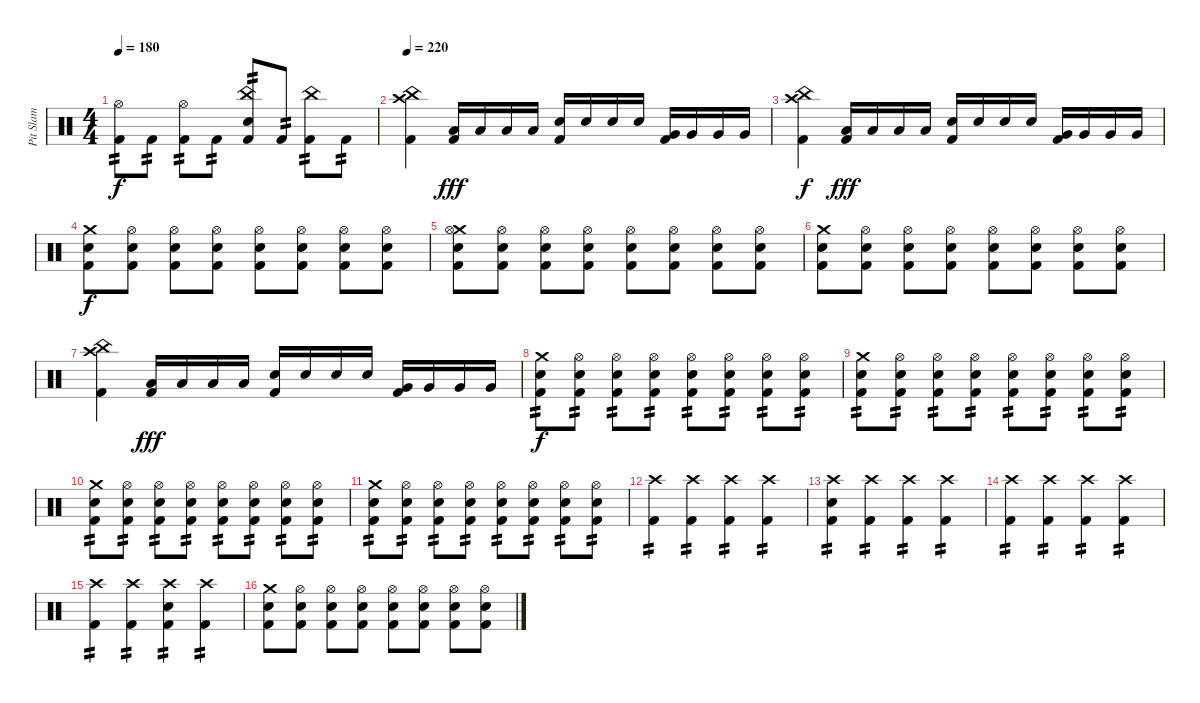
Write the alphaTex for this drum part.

\track ("Pit Slam" "Pit Slam") {instrument percussion}
\staff {score}
\articulation defaults
\ts (4 4)
\tempo 180
\clef neutral
\ks c
("Hi-Hat (open)" "Kick (hit) 2").8{tp 2 dy f} "Kick (hit) 2".8{tp 2} ("Hi-Hat (open)" "Kick (hit) 2").8{tp 2} "Kick (hit) 2".8{tp 2} ("China (hit)" "Electric Snare (hit)" "Kick (hit) 2").8{tp 2} "Kick (hit) 2".8{tp 2} ("China (hit)" "Kick (hit) 2").8{tp 2} "Kick (hit) 2".8{tp 2} |
\tempo 220
("China (hit)" "Crash high (hit)" "Kick (hit) 2").4 ("Low Tom (hit)" "Kick (hit) 2").16{dy fff} "Low Tom (hit)".16 "Low Tom (hit)".16 "Low Tom (hit)".16 ("Electric Snare (hit)" "Kick (hit) 2").16 "Electric Snare (hit)".16 "Electric Snare (hit)".16 "Electric Snare (hit)".16 ("Very Low Tom (hit)" "Kick (hit) 2").16 "Very Low Tom (hit)".16 "Very Low Tom (hit)".16 "Very Low Tom (hit)".16 |
("China (hit)" "Crash high (hit)" "Kick (hit) 2").4{dy f} ("Low Tom (hit)" "Kick (hit) 2").16{dy fff} "Low Tom (hit)".16 "Low Tom (hit)".16 "Low Tom (hit)".16 ("Electric Snare (hit)" "Kick (hit) 2").16 "Electric Snare (hit)".16 "Electric Snare (hit)".16 "Electric Snare (hit)".16 ("Very Low Tom (hit)" "Kick (hit) 2").16 "Very Low Tom (hit)".16 "Very Low Tom (hit)".16 "Very Low Tom (hit)".16 |
("Crash medium (hit)" "Electric Snare (hit)" "Kick (hit) 2").8{dy f} ("Hi-Hat (open)" "Electric Snare (hit)" "Kick (hit) 2").8 ("Hi-Hat (open)" "Electric Snare (hit)" "Kick (hit) 2").8 ("Hi-Hat (open)" "Electric Snare (hit)" "Kick (hit) 2").8 ("Hi-Hat (open)" "Electric Snare (hit)" "Kick (hit) 2").8 ("Hi-Hat (open)" "Electric Snare (hit)" "Kick (hit) 2").8 ("Hi-Hat (open)" "Electric Snare (hit)" "Kick (hit) 2").8 ("Hi-Hat (open)" "Electric Snare (hit)" "Kick (hit) 2").8 |
("Crash medium (hit)" "Hi-Hat (open)" "Electric Snare (hit)" "Kick (hit) 2").8 ("Hi-Hat (open)" "Electric Snare (hit)" "Kick (hit) 2").8 ("Hi-Hat (open)" "Electric Snare (hit)" "Kick (hit) 2").8 ("Hi-Hat (open)" "Electric Snare (hit)" "Kick (hit) 2").8 ("Hi-Hat (open)" "Electric Snare (hit)" "Kick (hit) 2").8 ("Hi-Hat (open)" "Electric Snare (hit)" "Kick (hit) 2").8 ("Hi-Hat (open)" "Electric Snare (hit)" "Kick (hit) 2").8 ("Hi-Hat (open)" "Electric Snare (hit)" "Kick (hit) 2").8 |
("Crash medium (hit)" "Electric Snare (hit)" "Kick (hit) 2").8 ("Hi-Hat (open)" "Electric Snare (hit)" "Kick (hit) 2").8 ("Hi-Hat (open)" "Electric Snare (hit)" "Kick (hit) 2").8 ("Hi-Hat (open)" "Electric Snare (hit)" "Kick (hit) 2").8 ("Hi-Hat (open)" "Electric Snare (hit)" "Kick (hit) 2").8 ("Hi-Hat (open)" "Electric Snare (hit)" "Kick (hit) 2").8 ("Hi-Hat (open)" "Electric Snare (hit)" "Kick (hit) 2").8 ("Hi-Hat (open)" "Electric Snare (hit)" "Kick (hit) 2").8 |
("China (hit)" "Crash high (hit)" "Kick (hit) 2").4 ("Low Tom (hit)" "Kick (hit) 2").16{dy fff} "Low Tom (hit)".16 "Low Tom (hit)".16 "Low Tom (hit)".16 ("Electric Snare (hit)" "Kick (hit) 2").16 "Electric Snare (hit)".16 "Electric Snare (hit)".16 "Electric Snare (hit)".16 ("Very Low Tom (hit)" "Kick (hit) 2").16 "Very Low Tom (hit)".16 "Very Low Tom (hit)".16 "Very Low Tom (hit)".16 |
("Crash medium (hit)" "Electric Snare (hit)" "Kick (hit) 2").8{tp 2 dy f} ("Hi-Hat (open)" "Electric Snare (hit)" "Kick (hit) 2").8{tp 2} ("Hi-Hat (open)" "Electric Snare (hit)" "Kick (hit) 2").8{tp 2} ("Hi-Hat (open)" "Electric Snare (hit)" "Kick (hit) 2").8{tp 2} ("Hi-Hat (open)" "Electric Snare (hit)" "Kick (hit) 2").8{tp 2} ("Hi-Hat (open)" "Electric Snare (hit)" "Kick (hit) 2").8{tp 2} ("Hi-Hat (open)" "Electric Snare (hit)" "Kick (hit) 2").8{tp 2} ("Hi-Hat (open)" "Electric Snare (hit)" "Kick (hit) 2").8{tp 2} |
("Crash medium (hit)" "Electric Snare (hit)" "Kick (hit) 2").8{tp 2} ("Hi-Hat (open)" "Electric Snare (hit)" "Kick (hit) 2").8{tp 2} ("Hi-Hat (open)" "Electric Snare (hit)" "Kick (hit) 2").8{tp 2} ("Hi-Hat (open)" "Electric Snare (hit)" "Kick (hit) 2").8{tp 2} ("Hi-Hat (open)" "Electric Snare (hit)" "Kick (hit) 2").8{tp 2} ("Hi-Hat (open)" "Electric Snare (hit)" "Kick (hit) 2").8{tp 2} ("Hi-Hat (open)" "Electric Snare (hit)" "Kick (hit) 2").8{tp 2} ("Hi-Hat (open)" "Electric Snare (hit)" "Kick (hit) 2").8{tp 2} |
("Crash medium (hit)" "Electric Snare (hit)" "Kick (hit) 2").8{tp 2} ("Hi-Hat (open)" "Electric Snare (hit)" "Kick (hit) 2").8{tp 2} ("Hi-Hat (open)" "Electric Snare (hit)" "Kick (hit) 2").8{tp 2} ("Hi-Hat (open)" "Electric Snare (hit)" "Kick (hit) 2").8{tp 2} ("Hi-Hat (open)" "Electric Snare (hit)" "Kick (hit) 2").8{tp 2} ("Hi-Hat (open)" "Electric Snare (hit)" "Kick (hit) 2").8{tp 2} ("Hi-Hat (open)" "Electric Snare (hit)" "Kick (hit) 2").8{tp 2} ("Hi-Hat (open)" "Electric Snare (hit)" "Kick (hit) 2").8{tp 2} |
("Crash medium (hit)" "Electric Snare (hit)" "Kick (hit) 2").8{tp 2} ("Hi-Hat (open)" "Electric Snare (hit)" "Kick (hit) 2").8{tp 2} ("Hi-Hat (open)" "Electric Snare (hit)" "Kick (hit) 2").8{tp 2} ("Hi-Hat (open)" "Electric Snare (hit)" "Kick (hit) 2").8{tp 2} ("Hi-Hat (open)" "Electric Snare (hit)" "Kick (hit) 2").8{tp 2} ("Hi-Hat (open)" "Electric Snare (hit)" "Kick (hit) 2").8{tp 2} ("Hi-Hat (open)" "Electric Snare (hit)" "Kick (hit) 2").8{tp 2} ("Hi-Hat (open)" "Electric Snare (hit)" "Kick (hit) 2").8{tp 2} |
("Crash high (hit)" "Kick (hit) 2").4{tp 2} ("Crash high (hit)" "Kick (hit) 2").4{tp 2} ("Crash high (hit)" "Kick (hit) 2").4{tp 2} ("Crash high (hit)" "Kick (hit) 2").4{tp 2} |
("Crash high (hit)" "Electric Snare (hit)" "Kick (hit) 2").4{tp 2} ("Crash high (hit)" "Kick (hit) 2").4{tp 2} ("Crash high (hit)" "Kick (hit) 2").4{tp 2} ("Crash high (hit)" "Kick (hit) 2").4{tp 2} |
("Crash high (hit)" "Kick (hit) 2").4{tp 2} ("Crash high (hit)" "Kick (hit) 2").4{tp 2} ("Crash high (hit)" "Kick (hit) 2").4{tp 2} ("Crash high (hit)" "Kick (hit) 2").4{tp 2} |
("Crash high (hit)" "Kick (hit) 2").4{tp 2} ("Crash high (hit)" "Kick (hit) 2").4{tp 2} ("Crash high (hit)" "Electric Snare (hit)" "Kick (hit) 2").4{tp 2} ("Crash high (hit)" "Kick (hit) 2").4{tp 2} |
("Crash medium (hit)" "Electric Snare (hit)" "Kick (hit) 2").8 ("Hi-Hat (open)" "Electric Snare (hit)" "Kick (hit) 2").8 ("Hi-Hat (open)" "Electric Snare (hit)" "Kick (hit) 2").8 ("Hi-Hat (open)" "Electric Snare (hit)" "Kick (hit) 2").8 ("Hi-Hat (open)" "Electric Snare (hit)" "Kick (hit) 2").8 ("Hi-Hat (open)" "Electric Snare (hit)" "Kick (hit) 2").8 ("Hi-Hat (open)" "Electric Snare (hit)" "Kick (hit) 2").8 ("Hi-Hat (open)" "Electric Snare (hit)" "Kick (hit) 2").8
